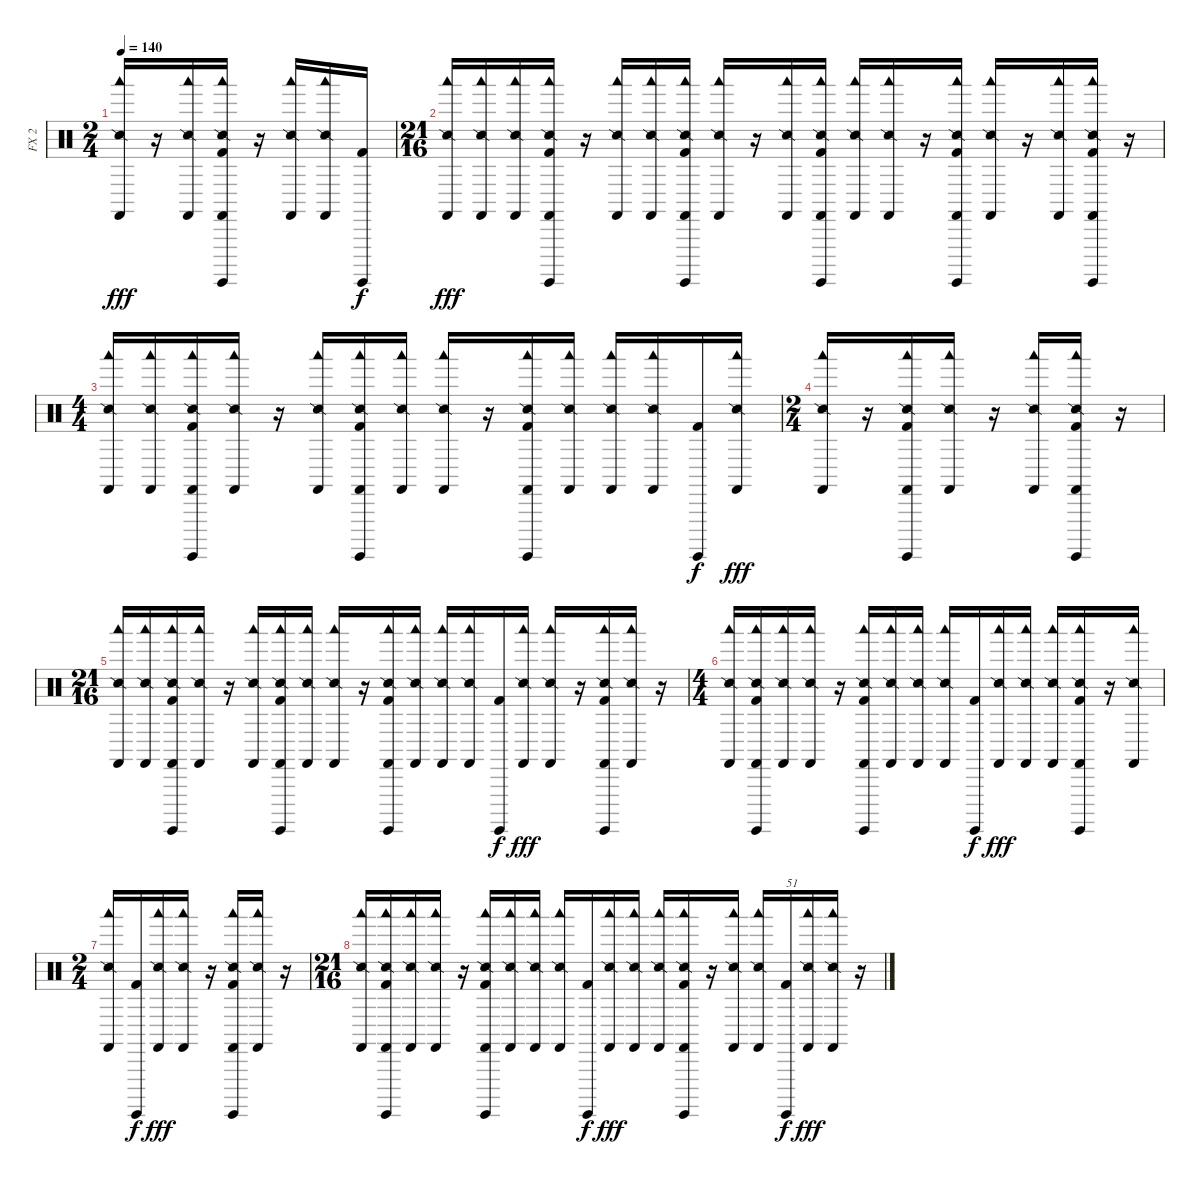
\track ("FX 2" "FX 2") {instrument percussion}
\staff {score}
\articulation defaults
\ts (2 4)
\tempo 140
\clef neutral
\ks c
("Snare (side stick) 2" "Woodblock low (hit)" "Castanets (hit)").16{dy fff} r.16 ("Snare (side stick) 2" "Woodblock low (hit)" "Castanets (hit)").16 ("Snare (side stick) 2" "Woodblock low (hit)" "Castanets (hit)" "Surdo (hit)" "Kick (hit) 2").16 r.16 ("Snare (side stick) 2" "Woodblock low (hit)" "Castanets (hit)").16 ("Snare (side stick) 2" "Woodblock low (hit)" "Castanets (hit)").16 ("Surdo (hit)" "Kick (hit) 2").16{dy f} |
\ts (21 16)
("Snare (side stick) 2" "Woodblock low (hit)" "Castanets (hit)").16{dy fff} ("Snare (side stick) 2" "Woodblock low (hit)" "Castanets (hit)").16 ("Snare (side stick) 2" "Woodblock low (hit)" "Castanets (hit)").16 ("Snare (side stick) 2" "Woodblock low (hit)" "Castanets (hit)" "Surdo (hit)" "Kick (hit) 2").16 r.16 ("Snare (side stick) 2" "Woodblock low (hit)" "Castanets (hit)").16 ("Snare (side stick) 2" "Woodblock low (hit)" "Castanets (hit)").16 ("Snare (side stick) 2" "Woodblock low (hit)" "Castanets (hit)" "Surdo (hit)" "Kick (hit) 2").16 ("Snare (side stick) 2" "Woodblock low (hit)" "Castanets (hit)").16 r.16 ("Snare (side stick) 2" "Woodblock low (hit)" "Castanets (hit)").16 ("Snare (side stick) 2" "Woodblock low (hit)" "Castanets (hit)" "Surdo (hit)" "Kick (hit) 2").16 ("Snare (side stick) 2" "Woodblock low (hit)" "Castanets (hit)").16 ("Snare (side stick) 2" "Woodblock low (hit)" "Castanets (hit)").16 r.16 ("Snare (side stick) 2" "Woodblock low (hit)" "Castanets (hit)" "Surdo (hit)" "Kick (hit) 2").16 ("Snare (side stick) 2" "Woodblock low (hit)" "Castanets (hit)").16 r.16 ("Snare (side stick) 2" "Woodblock low (hit)" "Castanets (hit)").16 ("Snare (side stick) 2" "Woodblock low (hit)" "Castanets (hit)" "Surdo (hit)" "Kick (hit) 2").16 r.16 |
\ts (4 4)
("Snare (side stick) 2" "Woodblock low (hit)" "Castanets (hit)").16 ("Snare (side stick) 2" "Woodblock low (hit)" "Castanets (hit)").16 ("Snare (side stick) 2" "Woodblock low (hit)" "Castanets (hit)" "Surdo (hit)" "Kick (hit) 2").16 ("Snare (side stick) 2" "Woodblock low (hit)" "Castanets (hit)").16 r.16 ("Snare (side stick) 2" "Woodblock low (hit)" "Castanets (hit)").16 ("Snare (side stick) 2" "Woodblock low (hit)" "Castanets (hit)" "Surdo (hit)" "Kick (hit) 2").16 ("Snare (side stick) 2" "Woodblock low (hit)" "Castanets (hit)").16 ("Snare (side stick) 2" "Woodblock low (hit)" "Castanets (hit)").16 r.16 ("Snare (side stick) 2" "Woodblock low (hit)" "Castanets (hit)" "Surdo (hit)" "Kick (hit) 2").16 ("Snare (side stick) 2" "Woodblock low (hit)" "Castanets (hit)").16 ("Snare (side stick) 2" "Woodblock low (hit)" "Castanets (hit)").16 ("Snare (side stick) 2" "Woodblock low (hit)" "Castanets (hit)").16 ("Surdo (hit)" "Kick (hit) 2").16{dy f} ("Snare (side stick) 2" "Woodblock low (hit)" "Castanets (hit)").16{dy fff} |
\ts (2 4)
("Snare (side stick) 2" "Woodblock low (hit)" "Castanets (hit)").16 r.16 ("Snare (side stick) 2" "Woodblock low (hit)" "Castanets (hit)" "Surdo (hit)" "Kick (hit) 2").16 ("Snare (side stick) 2" "Woodblock low (hit)" "Castanets (hit)").16 r.16 ("Snare (side stick) 2" "Woodblock low (hit)" "Castanets (hit)").16 ("Snare (side stick) 2" "Woodblock low (hit)" "Castanets (hit)" "Surdo (hit)" "Kick (hit) 2").16 r.16 |
\ts (21 16)
("Snare (side stick) 2" "Woodblock low (hit)" "Castanets (hit)").16 ("Snare (side stick) 2" "Woodblock low (hit)" "Castanets (hit)").16 ("Snare (side stick) 2" "Woodblock low (hit)" "Castanets (hit)" "Kick (hit) 2" "Surdo (hit)").16 ("Snare (side stick) 2" "Woodblock low (hit)" "Castanets (hit)").16 r.16 ("Snare (side stick) 2" "Woodblock low (hit)" "Castanets (hit)").16 ("Snare (side stick) 2" "Woodblock low (hit)" "Castanets (hit)" "Surdo (hit)" "Kick (hit) 2").16 ("Snare (side stick) 2" "Woodblock low (hit)" "Castanets (hit)").16 ("Snare (side stick) 2" "Woodblock low (hit)" "Castanets (hit)").16 r.16 ("Snare (side stick) 2" "Woodblock low (hit)" "Castanets (hit)" "Surdo (hit)" "Kick (hit) 2").16 ("Snare (side stick) 2" "Woodblock low (hit)" "Castanets (hit)").16 ("Snare (side stick) 2" "Woodblock low (hit)" "Castanets (hit)").16 ("Snare (side stick) 2" "Woodblock low (hit)" "Castanets (hit)").16 ("Surdo (hit)" "Kick (hit) 2").16{dy f} ("Snare (side stick) 2" "Woodblock low (hit)" "Castanets (hit)").16{dy fff} ("Snare (side stick) 2" "Woodblock low (hit)" "Castanets (hit)").16 r.16 ("Snare (side stick) 2" "Woodblock low (hit)" "Castanets (hit)" "Surdo (hit)" "Kick (hit) 2").16 ("Snare (side stick) 2" "Woodblock low (hit)" "Castanets (hit)").16 r.16 |
\ts (4 4)
("Snare (side stick) 2" "Woodblock low (hit)" "Castanets (hit)").16 ("Snare (side stick) 2" "Woodblock low (hit)" "Castanets (hit)" "Surdo (hit)" "Kick (hit) 2").16 ("Snare (side stick) 2" "Woodblock low (hit)" "Castanets (hit)").16 ("Snare (side stick) 2" "Woodblock low (hit)" "Castanets (hit)").16 r.16 ("Snare (side stick) 2" "Woodblock low (hit)" "Castanets (hit)" "Surdo (hit)" "Kick (hit) 2").16 ("Snare (side stick) 2" "Woodblock low (hit)" "Castanets (hit)").16 ("Snare (side stick) 2" "Woodblock low (hit)" "Castanets (hit)").16 ("Snare (side stick) 2" "Woodblock low (hit)" "Castanets (hit)").16 ("Surdo (hit)" "Kick (hit) 2").16{dy f} ("Snare (side stick) 2" "Woodblock low (hit)" "Castanets (hit)").16{dy fff} ("Snare (side stick) 2" "Woodblock low (hit)" "Castanets (hit)").16 ("Snare (side stick) 2" "Woodblock low (hit)" "Castanets (hit)").16 ("Snare (side stick) 2" "Woodblock low (hit)" "Castanets (hit)" "Surdo (hit)" "Kick (hit) 2").16 r.16 ("Snare (side stick) 2" "Woodblock low (hit)" "Castanets (hit)").16 |
\ts (2 4)
("Snare (side stick) 2" "Woodblock low (hit)" "Castanets (hit)").16 ("Surdo (hit)" "Kick (hit) 2").16{dy f} ("Snare (side stick) 2" "Woodblock low (hit)" "Castanets (hit)").16{dy fff} ("Snare (side stick) 2" "Woodblock low (hit)" "Castanets (hit)").16 r.16 ("Snare (side stick) 2" "Woodblock low (hit)" "Castanets (hit)" "Surdo (hit)" "Kick (hit) 2").16 ("Snare (side stick) 2" "Woodblock low (hit)" "Castanets (hit)").16 r.16 |
\ts (21 16)
("Snare (side stick) 2" "Woodblock low (hit)" "Castanets (hit)").16 ("Snare (side stick) 2" "Woodblock low (hit)" "Castanets (hit)" "Surdo (hit)" "Kick (hit) 2").16 ("Snare (side stick) 2" "Woodblock low (hit)" "Castanets (hit)").16 ("Snare (side stick) 2" "Woodblock low (hit)" "Castanets (hit)").16 r.16 ("Snare (side stick) 2" "Woodblock low (hit)" "Castanets (hit)" "Surdo (hit)" "Kick (hit) 2").16 ("Snare (side stick) 2" "Woodblock low (hit)" "Castanets (hit)").16 ("Snare (side stick) 2" "Woodblock low (hit)" "Castanets (hit)").16 ("Snare (side stick) 2" "Woodblock low (hit)" "Castanets (hit)").16 ("Surdo (hit)" "Kick (hit) 2").16{dy f} ("Snare (side stick) 2" "Woodblock low (hit)" "Castanets (hit)").16{dy fff} ("Snare (side stick) 2" "Woodblock low (hit)" "Castanets (hit)").16 ("Snare (side stick) 2" "Woodblock low (hit)" "Castanets (hit)").16 ("Snare (side stick) 2" "Woodblock low (hit)" "Castanets (hit)" "Surdo (hit)" "Kick (hit) 2").16 r.16 ("Snare (side stick) 2" "Woodblock low (hit)" "Castanets (hit)").16 ("Snare (side stick) 2" "Woodblock low (hit)" "Castanets (hit)").16 ("Surdo (hit)" "Kick (hit) 2").16{txt "51" dy f} ("Snare (side stick) 2" "Woodblock low (hit)" "Castanets (hit)").16{dy fff} ("Snare (side stick) 2" "Woodblock low (hit)" "Castanets (hit)").16 r.16
